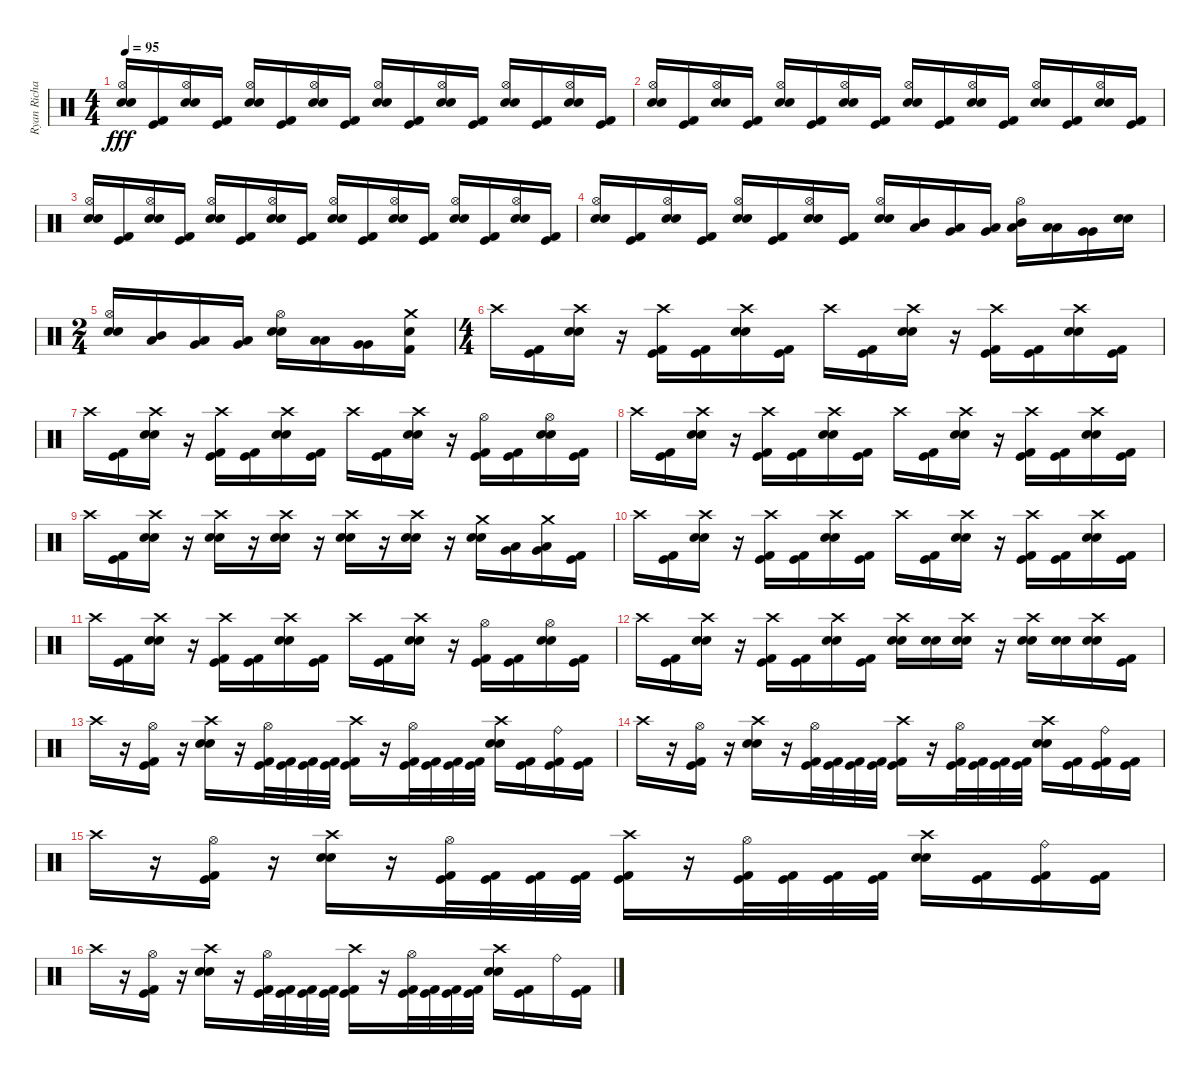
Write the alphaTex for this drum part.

\track ("Ryan Richards" "Ryan Richa") {instrument percussion}
\staff {score}
\articulation defaults
\ts (4 4)
\tempo 95
\clef neutral
\ks c
("Snare (hit) 2" "Hi-Hat (open)" "Electric Snare (hit)").16{dy fff} ("Kick (hit)" "Kick (hit) 2").16 ("Snare (hit) 2" "Hi-Hat (open)" "Electric Snare (hit)").16 ("Kick (hit)" "Kick (hit) 2").16 ("Snare (hit) 2" "Hi-Hat (open)" "Electric Snare (hit)").16 ("Kick (hit)" "Kick (hit) 2").16 ("Snare (hit) 2" "Hi-Hat (open)" "Electric Snare (hit)").16 ("Kick (hit)" "Kick (hit) 2").16 ("Snare (hit) 2" "Hi-Hat (open)" "Electric Snare (hit)").16 ("Kick (hit)" "Kick (hit) 2").16 ("Snare (hit) 2" "Hi-Hat (open)" "Electric Snare (hit)").16 ("Kick (hit)" "Kick (hit) 2").16 ("Snare (hit) 2" "Hi-Hat (open)" "Electric Snare (hit)").16 ("Kick (hit)" "Kick (hit) 2").16 ("Snare (hit) 2" "Hi-Hat (open)" "Electric Snare (hit)").16 ("Kick (hit)" "Kick (hit) 2").16 |
("Snare (hit) 2" "Hi-Hat (open)" "Electric Snare (hit)").16 ("Kick (hit)" "Kick (hit) 2").16 ("Snare (hit) 2" "Hi-Hat (open)" "Electric Snare (hit)").16 ("Kick (hit)" "Kick (hit) 2").16 ("Snare (hit) 2" "Hi-Hat (open)" "Electric Snare (hit)").16 ("Kick (hit)" "Kick (hit) 2").16 ("Snare (hit) 2" "Hi-Hat (open)" "Electric Snare (hit)").16 ("Kick (hit)" "Kick (hit) 2").16 ("Snare (hit) 2" "Hi-Hat (open)" "Electric Snare (hit)").16 ("Kick (hit)" "Kick (hit) 2").16 ("Snare (hit) 2" "Hi-Hat (open)" "Electric Snare (hit)").16 ("Kick (hit)" "Kick (hit) 2").16 ("Snare (hit) 2" "Hi-Hat (open)" "Electric Snare (hit)").16 ("Kick (hit)" "Kick (hit) 2").16 ("Snare (hit) 2" "Hi-Hat (open)" "Electric Snare (hit)").16 ("Kick (hit)" "Kick (hit) 2").16 |
("Snare (hit) 2" "Hi-Hat (open)" "Electric Snare (hit)").16 ("Kick (hit)" "Kick (hit) 2").16 ("Snare (hit) 2" "Hi-Hat (open)" "Electric Snare (hit)").16 ("Kick (hit)" "Kick (hit) 2").16 ("Snare (hit) 2" "Hi-Hat (open)" "Electric Snare (hit)").16 ("Kick (hit)" "Kick (hit) 2").16 ("Snare (hit) 2" "Hi-Hat (open)" "Electric Snare (hit)").16 ("Kick (hit)" "Kick (hit) 2").16 ("Snare (hit) 2" "Hi-Hat (open)" "Electric Snare (hit)").16 ("Kick (hit)" "Kick (hit) 2").16 ("Snare (hit) 2" "Hi-Hat (open)" "Electric Snare (hit)").16 ("Kick (hit)" "Kick (hit) 2").16 ("Snare (hit) 2" "Hi-Hat (open)" "Electric Snare (hit)").16 ("Kick (hit)" "Kick (hit) 2").16 ("Snare (hit) 2" "Hi-Hat (open)" "Electric Snare (hit)").16 ("Kick (hit)" "Kick (hit) 2").16 |
("Snare (hit) 2" "Hi-Hat (open)" "Electric Snare (hit)").16 ("Kick (hit)" "Kick (hit) 2").16 ("Snare (hit) 2" "Hi-Hat (open)" "Electric Snare (hit)").16 ("Kick (hit)" "Kick (hit) 2").16 ("Snare (hit) 2" "Hi-Hat (open)" "Electric Snare (hit)").16 ("Kick (hit)" "Kick (hit) 2").16 ("Snare (hit) 2" "Hi-Hat (open)" "Electric Snare (hit)").16 ("Kick (hit)" "Kick (hit) 2").16 ("Snare (hit) 2" "Hi-Hat (open)" "Electric Snare (hit)").16 ("Mid Tom (hit)" "Low Tom (hit)").16 ("Low Tom (hit)" "Very Low Tom (hit)").16 ("Very Low Tom (hit)" "Low Floor Tom (hit)").16 ("Mid Tom (hit)" "Hi-Hat (open)" "Low Tom (hit)").16 ("Low Tom (hit)" "Low Tom (hit)").16 ("Very Low Tom (hit)" "Very Low Tom (hit)").16 ("Snare (hit) 2" "Electric Snare (hit)").16 |
\ts (2 4)
("Snare (hit) 2" "Hi-Hat (open)" "Electric Snare (hit)").16 ("Mid Tom (hit)" "Low Tom (hit)").16 ("Low Tom (hit)" "Very Low Tom (hit)").16 ("Very Low Tom (hit)" "Low Floor Tom (hit)").16 ("Snare (hit) 2" "Hi-Hat (open)" "Electric Snare (hit)").16 ("Low Tom (hit)" "Low Tom (hit)").16 ("Very Low Tom (hit)" "Very Low Tom (hit)").16 ("Snare (hit) 2" "Crash medium (hit)" "Kick (hit) 2").16 |
\ts (4 4)
"Crash high (hit)".16 ("Kick (hit)" "Kick (hit) 2").16 ("Snare (hit) 2" "Crash high (hit)" "Electric Snare (hit)").16 r.16 ("Kick (hit)" "Crash high (hit)" "Kick (hit) 2").16 ("Kick (hit)" "Kick (hit) 2").16 ("Snare (hit) 2" "Crash high (hit)" "Electric Snare (hit)").16 ("Kick (hit)" "Kick (hit) 2").16 "Crash high (hit)".16 ("Kick (hit)" "Kick (hit) 2").16 ("Snare (hit) 2" "Crash high (hit)" "Electric Snare (hit)").16 r.16 ("Kick (hit)" "Crash high (hit)" "Kick (hit) 2").16 ("Kick (hit)" "Kick (hit) 2").16 ("Snare (hit) 2" "Crash high (hit)" "Electric Snare (hit)").16 ("Kick (hit)" "Kick (hit) 2").16 |
"Crash high (hit)".16 ("Kick (hit)" "Kick (hit) 2").16 ("Snare (hit) 2" "Crash high (hit)" "Electric Snare (hit)").16 r.16 ("Kick (hit)" "Crash high (hit)" "Kick (hit) 2").16 ("Kick (hit)" "Kick (hit) 2").16 ("Snare (hit) 2" "Crash high (hit)" "Electric Snare (hit)").16 ("Kick (hit)" "Kick (hit) 2").16 "Crash high (hit)".16 ("Kick (hit)" "Kick (hit) 2").16 ("Snare (hit) 2" "Crash high (hit)" "Electric Snare (hit)").16 r.16 ("Kick (hit)" "Hi-Hat (open)" "Kick (hit) 2").16 ("Kick (hit)" "Kick (hit) 2").16 ("Snare (hit) 2" "Hi-Hat (open)" "Electric Snare (hit)").16 ("Kick (hit)" "Kick (hit) 2").16 |
"Crash high (hit)".16 ("Kick (hit)" "Kick (hit) 2").16 ("Snare (hit) 2" "Crash high (hit)" "Electric Snare (hit)").16 r.16 ("Kick (hit)" "Crash high (hit)" "Kick (hit) 2").16 ("Kick (hit)" "Kick (hit) 2").16 ("Snare (hit) 2" "Crash high (hit)" "Electric Snare (hit)").16 ("Kick (hit)" "Kick (hit) 2").16 "Crash high (hit)".16 ("Kick (hit)" "Kick (hit) 2").16 ("Snare (hit) 2" "Crash high (hit)" "Electric Snare (hit)").16 r.16 ("Kick (hit)" "Crash high (hit)" "Kick (hit) 2").16 ("Kick (hit)" "Kick (hit) 2").16 ("Snare (hit) 2" "Crash high (hit)" "Electric Snare (hit)").16 ("Kick (hit)" "Kick (hit) 2").16 |
"Crash high (hit)".16 ("Kick (hit)" "Kick (hit) 2").16 ("Snare (hit) 2" "Crash high (hit)" "Electric Snare (hit)").16 r.16 ("Snare (hit) 2" "Crash high (hit)" "Electric Snare (hit)").16 r.16 ("Snare (hit) 2" "Crash high (hit)" "Electric Snare (hit)").16 r.16 ("Snare (hit) 2" "Crash high (hit)" "Electric Snare (hit)").16 r.16 ("Snare (hit) 2" "Crash high (hit)" "Electric Snare (hit)").16 r.16 ("Snare (hit) 2" "Crash medium (hit)" "Electric Snare (hit)").16 ("Low Tom (hit)" "Very Low Tom (hit)").16 ("Very Low Tom (hit)" "Crash medium (hit)" "Low Floor Tom (hit)").16 ("Kick (hit)" "Kick (hit) 2").16 |
"Crash high (hit)".16 ("Kick (hit)" "Kick (hit) 2").16 ("Snare (hit) 2" "Crash high (hit)" "Electric Snare (hit)").16 r.16 ("Kick (hit)" "Crash high (hit)" "Kick (hit) 2").16 ("Kick (hit)" "Kick (hit) 2").16 ("Snare (hit) 2" "Crash high (hit)" "Electric Snare (hit)").16 ("Kick (hit)" "Kick (hit) 2").16 "Crash high (hit)".16 ("Kick (hit)" "Kick (hit) 2").16 ("Snare (hit) 2" "Crash high (hit)" "Electric Snare (hit)").16 r.16 ("Kick (hit)" "Crash high (hit)" "Kick (hit) 2").16 ("Kick (hit)" "Kick (hit) 2").16 ("Snare (hit) 2" "Crash high (hit)" "Electric Snare (hit)").16 ("Kick (hit)" "Kick (hit) 2").16 |
"Crash high (hit)".16 ("Kick (hit)" "Kick (hit) 2").16 ("Snare (hit) 2" "Crash high (hit)" "Electric Snare (hit)").16 r.16 ("Kick (hit)" "Crash high (hit)" "Kick (hit) 2").16 ("Kick (hit)" "Kick (hit) 2").16 ("Snare (hit) 2" "Crash high (hit)" "Electric Snare (hit)").16 ("Kick (hit)" "Kick (hit) 2").16 "Crash high (hit)".16 ("Kick (hit)" "Kick (hit) 2").16 ("Snare (hit) 2" "Crash high (hit)" "Electric Snare (hit)").16 r.16 ("Kick (hit)" "Hi-Hat (open)" "Kick (hit) 2").16 ("Kick (hit)" "Kick (hit) 2").16 ("Snare (hit) 2" "Hi-Hat (open)" "Electric Snare (hit)").16 ("Kick (hit)" "Kick (hit) 2").16 |
"Crash high (hit)".16 ("Kick (hit)" "Kick (hit) 2").16 ("Snare (hit) 2" "Crash high (hit)" "Electric Snare (hit)").16 r.16 ("Kick (hit)" "Crash high (hit)" "Kick (hit) 2").16 ("Kick (hit)" "Kick (hit) 2").16 ("Snare (hit) 2" "Crash high (hit)" "Electric Snare (hit)").16 ("Kick (hit)" "Kick (hit) 2").16 ("Snare (hit) 2" "Crash high (hit)" "Electric Snare (hit)").16 ("Snare (hit) 2" "Electric Snare (hit)").16 ("Snare (hit) 2" "Crash high (hit)" "Electric Snare (hit)").16 r.16 ("Snare (hit) 2" "Crash high (hit)" "Electric Snare (hit)").16 ("Snare (hit) 2" "Electric Snare (hit)").16 ("Snare (hit) 2" "Crash high (hit)" "Electric Snare (hit)").16 ("Kick (hit)" "Kick (hit) 2").16 |
"Crash high (hit)".16 r.16 ("Kick (hit)" "Hi-Hat (open)" "Kick (hit) 2").16 r.16 ("Snare (hit) 2" "Crash high (hit)" "Electric Snare (hit)").16 r.16 ("Kick (hit)" "Hi-Hat (open)" "Kick (hit) 2").32 ("Kick (hit)" "Kick (hit) 2").32 ("Kick (hit)" "Kick (hit) 2").32 ("Kick (hit)" "Kick (hit) 2").32 ("Kick (hit)" "Crash high (hit)" "Kick (hit) 2").16 r.16 ("Kick (hit)" "Hi-Hat (open)" "Kick (hit) 2").32 ("Kick (hit)" "Kick (hit) 2").32 ("Kick (hit)" "Kick (hit) 2").32 ("Kick (hit)" "Kick (hit) 2").32 ("Snare (hit) 2" "Crash high (hit)" "Electric Snare (hit)").16 ("Kick (hit)" "Kick (hit) 2").16 ("Kick (hit)" "Ride (bell)" "Kick (hit) 2").16 ("Kick (hit)" "Kick (hit) 2").16 |
"Crash high (hit)".16 r.16 ("Kick (hit)" "Hi-Hat (open)" "Kick (hit) 2").16 r.16 ("Snare (hit) 2" "Crash high (hit)" "Electric Snare (hit)").16 r.16 ("Kick (hit)" "Hi-Hat (open)" "Kick (hit) 2").32 ("Kick (hit)" "Kick (hit) 2").32 ("Kick (hit)" "Kick (hit) 2").32 ("Kick (hit)" "Kick (hit) 2").32 ("Kick (hit)" "Crash high (hit)" "Kick (hit) 2").16 r.16 ("Kick (hit)" "Hi-Hat (open)" "Kick (hit) 2").32 ("Kick (hit)" "Kick (hit) 2").32 ("Kick (hit)" "Kick (hit) 2").32 ("Kick (hit)" "Kick (hit) 2").32 ("Snare (hit) 2" "Crash high (hit)" "Electric Snare (hit)").16 ("Kick (hit)" "Kick (hit) 2").16 ("Kick (hit)" "Ride (bell)" "Kick (hit) 2").16 ("Kick (hit)" "Kick (hit) 2").16 |
"Crash high (hit)".16 r.16 ("Kick (hit)" "Hi-Hat (open)" "Kick (hit) 2").16 r.16 ("Snare (hit) 2" "Crash high (hit)" "Electric Snare (hit)").16 r.16 ("Kick (hit)" "Hi-Hat (open)" "Kick (hit) 2").32 ("Kick (hit)" "Kick (hit) 2").32 ("Kick (hit)" "Kick (hit) 2").32 ("Kick (hit)" "Kick (hit) 2").32 ("Kick (hit)" "Crash high (hit)" "Kick (hit) 2").16 r.16 ("Kick (hit)" "Hi-Hat (open)" "Kick (hit) 2").32 ("Kick (hit)" "Kick (hit) 2").32 ("Kick (hit)" "Kick (hit) 2").32 ("Kick (hit)" "Kick (hit) 2").32 ("Snare (hit) 2" "Crash high (hit)" "Electric Snare (hit)").16 ("Kick (hit)" "Kick (hit) 2").16 ("Kick (hit)" "Ride (bell)" "Kick (hit) 2").16 ("Kick (hit)" "Kick (hit) 2").16 |
"Crash high (hit)".16 r.16 ("Kick (hit)" "Hi-Hat (open)" "Kick (hit) 2").16 r.16 ("Snare (hit) 2" "Crash high (hit)" "Electric Snare (hit)").16 r.16 ("Kick (hit)" "Hi-Hat (open)" "Kick (hit) 2").32 ("Kick (hit)" "Kick (hit) 2").32 ("Kick (hit)" "Kick (hit) 2").32 ("Kick (hit)" "Kick (hit) 2").32 ("Kick (hit)" "Crash high (hit)" "Kick (hit) 2").16 r.16 ("Kick (hit)" "Hi-Hat (open)" "Kick (hit) 2").32 ("Kick (hit)" "Kick (hit) 2").32 ("Kick (hit)" "Kick (hit) 2").32 ("Kick (hit)" "Kick (hit) 2").32 ("Snare (hit) 2" "Crash high (hit)" "Electric Snare (hit)").16 ("Kick (hit)" "Kick (hit) 2").16 "Ride (bell)".16 ("Kick (hit)" "Kick (hit) 2").16
